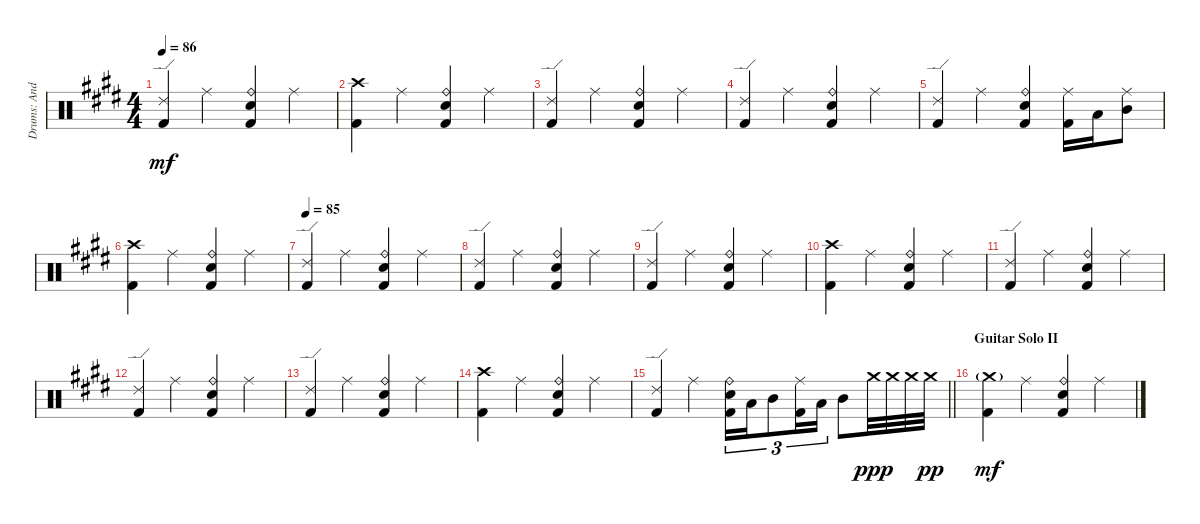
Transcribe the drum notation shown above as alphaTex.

\track ("Drums: Andy" "Drums: And") {instrument percussion}
\staff {score}
\articulation defaults
\ts (4 4)
\tempo 86
\clef neutral
\ks e
("Ride (edge) 2" "Kick (hit) 2").4{dy mf} "Ride (middle)".4 ("Ride (bell)" "Electric Snare (hit)" "Kick (hit) 2").4 "Ride (middle)".4 |
("Crash high (hit)" "Kick (hit) 2").4 "Ride (middle)".4 ("Ride (bell)" "Electric Snare (hit)" "Kick (hit) 2").4 "Ride (middle)".4 |
("Ride (edge) 2" "Kick (hit) 2").4 "Ride (middle)".4 ("Ride (bell)" "Electric Snare (hit)" "Kick (hit) 2").4 "Ride (middle)".4 |
("Ride (edge) 2" "Kick (hit) 2").4 "Ride (middle)".4 ("Ride (bell)" "Electric Snare (hit)" "Kick (hit) 2").4 "Ride (middle)".4 |
("Ride (edge) 2" "Kick (hit) 2").4 "Ride (middle)".4 ("Ride (bell)" "Electric Snare (hit)" "Kick (hit) 2").4 ("Ride (middle)" "Kick (hit) 2").16 "Low Tom (hit)".16 ("Ride (middle)" "Mid Tom (hit)").8 |
("Crash high (hit)" "Kick (hit) 2").4 "Ride (middle)".4 ("Ride (bell)" "Electric Snare (hit)" "Kick (hit) 2").4 "Ride (middle)".4 |
\tempo 85
("Ride (edge) 2" "Kick (hit) 2").4 "Ride (middle)".4 ("Ride (bell)" "Electric Snare (hit)" "Kick (hit) 2").4 "Ride (middle)".4 |
("Ride (edge) 2" "Kick (hit) 2").4 "Ride (middle)".4 ("Ride (bell)" "Electric Snare (hit)" "Kick (hit) 2").4 "Ride (middle)".4 |
("Ride (edge) 2" "Kick (hit) 2").4 "Ride (middle)".4 ("Ride (bell)" "Electric Snare (hit)" "Kick (hit) 2").4 "Ride (middle)".4 |
("Crash high (hit)" "Kick (hit) 2").4 "Ride (middle)".4 ("Ride (bell)" "Electric Snare (hit)" "Kick (hit) 2").4 "Ride (middle)".4 |
("Ride (edge) 2" "Kick (hit) 2").4 "Ride (middle)".4 ("Ride (bell)" "Electric Snare (hit)" "Kick (hit) 2").4 "Ride (middle)".4 |
("Ride (edge) 2" "Kick (hit) 2").4 "Ride (middle)".4 ("Ride (bell)" "Electric Snare (hit)" "Kick (hit) 2").4 "Ride (middle)".4 |
("Ride (edge) 2" "Kick (hit) 2").4 "Ride (middle)".4 ("Ride (bell)" "Electric Snare (hit)" "Kick (hit) 2").4 "Ride (middle)".4 |
("Crash high (hit)" "Kick (hit) 2").4 "Ride (middle)".4 ("Ride (bell)" "Electric Snare (hit)" "Kick (hit) 2").4 "Ride (middle)".4 |
\barLineRight lightlight
("Ride (edge) 2" "Kick (hit) 2").4 "Ride (middle)".4 ("Ride (bell)" "Electric Snare (hit)" "Kick (hit) 2").16{tu (3 2)} "Low Tom (hit)".16{tu (3 2)} "Mid Tom (hit)".8{tu (3 2)} ("Ride (middle)" "Kick (hit) 2").16{tu (3 2)} "Low Tom (hit)".16{tu (3 2)} "Mid Tom (hit)".8 "Crash medium (hit)".32{dy ppp} "Crash medium (hit)".32 "Crash medium (hit)".32 "Crash medium (hit)".32{dy pp} |
\section ("" "Guitar Solo II")
("Crash medium (hit)"{g} "Kick (hit) 2").4{dy mf} "Ride (middle)".4 ("Ride (bell)" "Electric Snare (hit)" "Kick (hit) 2").4 "Ride (middle)".4
